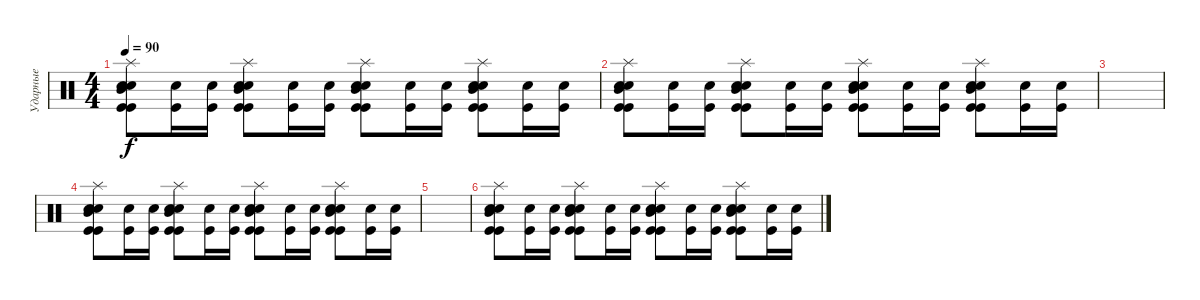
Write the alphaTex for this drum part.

\track ("Ударные" "Ударные") {instrument percussion}
\staff {score}
\articulation defaults
\ts (4 4)
\tempo 90
\clef neutral
\ks c
("Kick (hit)" "Kick (hit)" "Mid Tom (hit)" "Electric Snare (hit)" "Snare (hit) 2" "Splash (hit)").8{dy f volume 0} ("Snare (hit) 2" "Kick (hit)").16 ("Snare (hit) 2" "Kick (hit)").16 ("Kick (hit)" "Kick (hit)" "Mid Tom (hit)" "Electric Snare (hit)" "Snare (hit) 2" "Splash (hit)").8 ("Snare (hit) 2" "Kick (hit)").16 ("Snare (hit) 2" "Kick (hit)").16 ("Kick (hit)" "Kick (hit)" "Mid Tom (hit)" "Electric Snare (hit)" "Snare (hit) 2" "Splash (hit)").8 ("Snare (hit) 2" "Kick (hit)").16 ("Snare (hit) 2" "Kick (hit)").16 ("Kick (hit)" "Kick (hit)" "Mid Tom (hit)" "Electric Snare (hit)" "Snare (hit) 2" "Splash (hit)").8 ("Snare (hit) 2" "Kick (hit)").16 ("Snare (hit) 2" "Kick (hit)").16 |
("Kick (hit)" "Kick (hit)" "Mid Tom (hit)" "Electric Snare (hit)" "Snare (hit) 2" "Splash (hit)").8 ("Snare (hit) 2" "Kick (hit)").16 ("Snare (hit) 2" "Kick (hit)").16 ("Kick (hit)" "Kick (hit)" "Mid Tom (hit)" "Electric Snare (hit)" "Snare (hit) 2" "Splash (hit)").8 ("Snare (hit) 2" "Kick (hit)").16 ("Snare (hit) 2" "Kick (hit)").16 ("Kick (hit)" "Kick (hit)" "Mid Tom (hit)" "Electric Snare (hit)" "Snare (hit) 2" "Splash (hit)").8 ("Snare (hit) 2" "Kick (hit)").16 ("Snare (hit) 2" "Kick (hit)").16 ("Kick (hit)" "Kick (hit)" "Mid Tom (hit)" "Electric Snare (hit)" "Snare (hit) 2" "Splash (hit)").8 ("Snare (hit) 2" "Kick (hit)").16 ("Snare (hit) 2" "Kick (hit)").16 |
|
("Kick (hit)" "Kick (hit)" "Mid Tom (hit)" "Electric Snare (hit)" "Snare (hit) 2" "Splash (hit)").8{volume 6} ("Snare (hit) 2" "Kick (hit)").16 ("Snare (hit) 2" "Kick (hit)").16 ("Kick (hit)" "Kick (hit)" "Mid Tom (hit)" "Electric Snare (hit)" "Snare (hit) 2" "Splash (hit)").8 ("Snare (hit) 2" "Kick (hit)").16 ("Snare (hit) 2" "Kick (hit)").16 ("Kick (hit)" "Kick (hit)" "Mid Tom (hit)" "Electric Snare (hit)" "Snare (hit) 2" "Splash (hit)").8{volume 0} ("Snare (hit) 2" "Kick (hit)").16 ("Snare (hit) 2" "Kick (hit)").16 ("Kick (hit)" "Kick (hit)" "Mid Tom (hit)" "Electric Snare (hit)" "Snare (hit) 2" "Splash (hit)").8 ("Snare (hit) 2" "Kick (hit)").16 ("Snare (hit) 2" "Kick (hit)").16 |
|
("Kick (hit)" "Kick (hit)" "Mid Tom (hit)" "Electric Snare (hit)" "Snare (hit) 2" "Splash (hit)").8{volume 11} ("Snare (hit) 2" "Kick (hit)").16 ("Snare (hit) 2" "Kick (hit)").16 ("Kick (hit)" "Kick (hit)" "Mid Tom (hit)" "Electric Snare (hit)" "Snare (hit) 2" "Splash (hit)").8 ("Snare (hit) 2" "Kick (hit)").16 ("Snare (hit) 2" "Kick (hit)").16 ("Kick (hit)" "Kick (hit)" "Mid Tom (hit)" "Electric Snare (hit)" "Snare (hit) 2" "Splash (hit)").8{volume 0} ("Snare (hit) 2" "Kick (hit)").16 ("Snare (hit) 2" "Kick (hit)").16 ("Kick (hit)" "Kick (hit)" "Mid Tom (hit)" "Electric Snare (hit)" "Snare (hit) 2" "Splash (hit)").8 ("Snare (hit) 2" "Kick (hit)").16 ("Snare (hit) 2" "Kick (hit)").16
